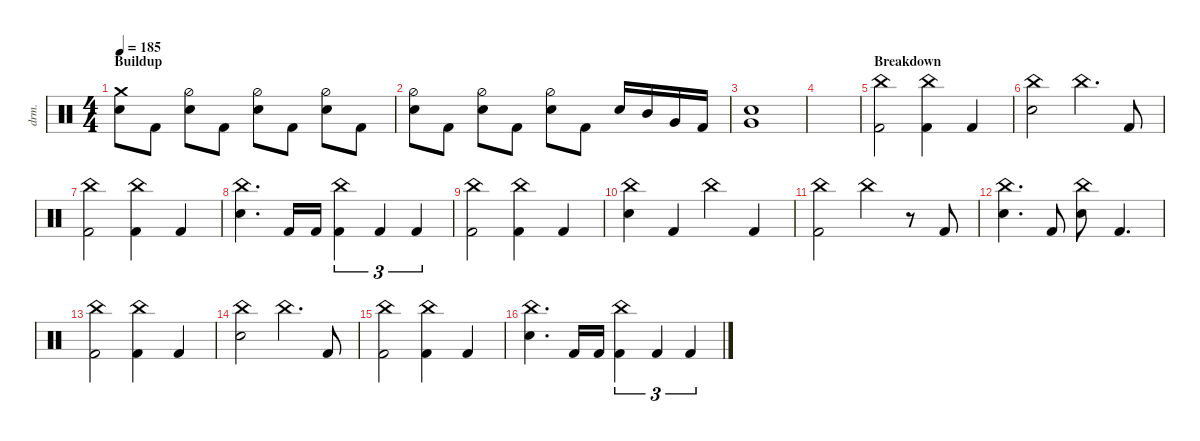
\defaultSystemsLayout 4
\hideDynamics
\bracketExtendMode nobrackets
\track ("Drums - Šimon" "drm.") {instrument percussion}
\staff {score}
\articulation defaults
\ts (4 4)
\section ("" "Buildup")
\tempo 185
\clef neutral
\ks c
("Crash medium (hit)" "Snare (hit) 2").8{dy ff} "Kick (hit) 2".8 ("Snare (hit) 2" "Hi-Hat (half)").8 "Kick (hit) 2".8 ("Snare (hit) 2" "Hi-Hat (half)").8 "Kick (hit) 2".8 ("Snare (hit) 2" "Hi-Hat (half)").8 "Kick (hit) 2".8 |
("Snare (hit) 2" "Hi-Hat (half)").8 "Kick (hit) 2".8 ("Snare (hit) 2" "Hi-Hat (half)").8 "Kick (hit) 2".8 ("Snare (hit) 2" "Hi-Hat (half)").8 "Kick (hit) 2".8 "Snare (hit) 2".16 "Mid Tom (hit)".16 "Very Low Tom (hit)".16 "Kick (hit) 2".16 |
("Snare (hit) 2" "Very Low Tom (hit)").1 |
|
\section ("" "Breakdown")
("Kick (hit) 2" "China (hit)").2 ("Kick (hit) 2" "China (hit)").4 "Kick (hit) 2".4 |
("China (hit)" "Snare (hit) 2").2 "China (hit)".4{d} "Kick (hit) 2".8 |
("Kick (hit) 2" "China (hit)").2 ("Kick (hit) 2" "China (hit)").4 "Kick (hit) 2".4 |
("China (hit)" "Snare (hit) 2").4{d} "Kick (hit) 2".16 "Kick (hit) 2".16 ("Kick (hit) 2" "China (hit)").4{tu (3 2)} "Kick (hit) 2".4{tu (3 2)} "Kick (hit) 2".4{tu (3 2)} |
("Kick (hit) 2" "China (hit)").2 ("Kick (hit) 2" "China (hit)").4 "Kick (hit) 2".4 |
("Snare (hit) 2" "China (hit)").4 "Kick (hit) 2".4 "China (hit)".4 "Kick (hit) 2".4 |
("China (hit)" "Kick (hit) 2").2 "China (hit)".4 r.8 "Kick (hit) 2".8 |
("Snare (hit) 2" "China (hit)").4{d} "Kick (hit) 2".8 ("Snare (hit) 2" "China (hit)").8 "Kick (hit) 2".4{d} |
("Kick (hit) 2" "China (hit)").2 ("Kick (hit) 2" "China (hit)").4 "Kick (hit) 2".4 |
("China (hit)" "Snare (hit) 2").2 "China (hit)".4{d} "Kick (hit) 2".8 |
("Kick (hit) 2" "China (hit)").2 ("Kick (hit) 2" "China (hit)").4 "Kick (hit) 2".4 |
("China (hit)" "Snare (hit) 2").4{d} "Kick (hit) 2".16 "Kick (hit) 2".16 ("Kick (hit) 2" "China (hit)").4{tu (3 2)} "Kick (hit) 2".4{tu (3 2)} "Kick (hit) 2".4{tu (3 2)}
